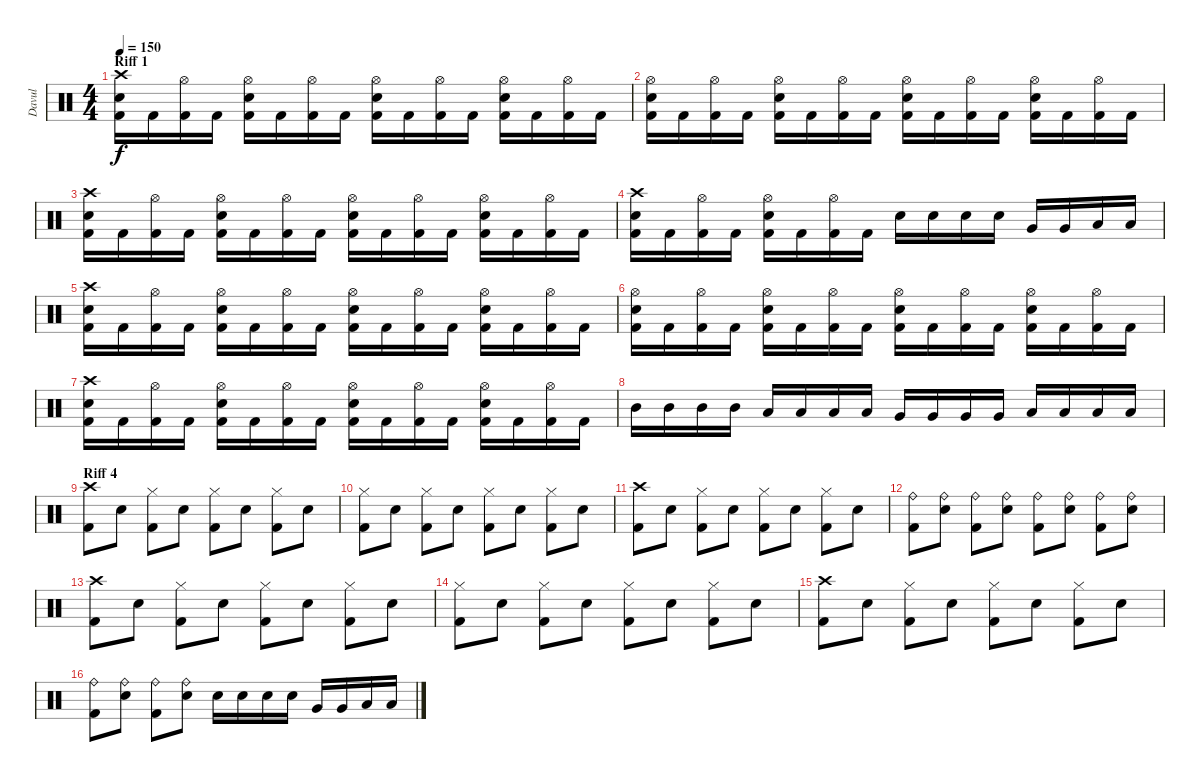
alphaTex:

\track ("Davul" "Davul") {instrument percussion}
\staff {score}
\articulation defaults
\ts (4 4)
\section ("" "Riff 1")
\tempo 150
\clef neutral
\ks c
("Crash high (hit)" "Electric Snare (hit)" "Kick (hit) 2").16{dy f} "Kick (hit) 2".16 ("Hi-Hat (open)" "Kick (hit) 2").16 "Kick (hit) 2".16 ("Hi-Hat (open)" "Electric Snare (hit)" "Kick (hit) 2").16 "Kick (hit) 2".16 ("Hi-Hat (open)" "Kick (hit) 2").16 "Kick (hit) 2".16 ("Hi-Hat (open)" "Electric Snare (hit)" "Kick (hit) 2").16 "Kick (hit) 2".16 ("Hi-Hat (open)" "Kick (hit) 2").16 "Kick (hit) 2".16 ("Hi-Hat (open)" "Electric Snare (hit)" "Kick (hit) 2").16 "Kick (hit) 2".16 ("Hi-Hat (open)" "Kick (hit) 2").16 "Kick (hit) 2".16 |
("Hi-Hat (open)" "Electric Snare (hit)" "Kick (hit) 2").16 "Kick (hit) 2".16 ("Hi-Hat (open)" "Kick (hit) 2").16 "Kick (hit) 2".16 ("Hi-Hat (open)" "Electric Snare (hit)" "Kick (hit) 2").16 "Kick (hit) 2".16 ("Hi-Hat (open)" "Kick (hit) 2").16 "Kick (hit) 2".16 ("Hi-Hat (open)" "Electric Snare (hit)" "Kick (hit) 2").16 "Kick (hit) 2".16 ("Hi-Hat (open)" "Kick (hit) 2").16 "Kick (hit) 2".16 ("Hi-Hat (open)" "Electric Snare (hit)" "Kick (hit) 2").16 "Kick (hit) 2".16 ("Hi-Hat (open)" "Kick (hit) 2").16 "Kick (hit) 2".16 |
("Crash high (hit)" "Electric Snare (hit)" "Kick (hit) 2").16 "Kick (hit) 2".16 ("Hi-Hat (open)" "Kick (hit) 2").16 "Kick (hit) 2".16 ("Hi-Hat (open)" "Electric Snare (hit)" "Kick (hit) 2").16 "Kick (hit) 2".16 ("Hi-Hat (open)" "Kick (hit) 2").16 "Kick (hit) 2".16 ("Hi-Hat (open)" "Electric Snare (hit)" "Kick (hit) 2").16 "Kick (hit) 2".16 ("Hi-Hat (open)" "Kick (hit) 2").16 "Kick (hit) 2".16 ("Hi-Hat (open)" "Electric Snare (hit)" "Kick (hit) 2").16 "Kick (hit) 2".16 ("Hi-Hat (open)" "Kick (hit) 2").16 "Kick (hit) 2".16 |
("Crash high (hit)" "Electric Snare (hit)" "Kick (hit) 2").16 "Kick (hit) 2".16 ("Hi-Hat (open)" "Kick (hit) 2").16 "Kick (hit) 2".16 ("Hi-Hat (open)" "Electric Snare (hit)" "Kick (hit) 2").16 "Kick (hit) 2".16 ("Hi-Hat (open)" "Kick (hit) 2").16 "Kick (hit) 2".16 "Electric Snare (hit)".16 "Electric Snare (hit)".16 "Electric Snare (hit)".16 "Electric Snare (hit)".16 "Very Low Tom (hit)".16 "Very Low Tom (hit)".16 "Low Floor Tom (hit)".16 "Low Floor Tom (hit)".16 |
("Crash high (hit)" "Electric Snare (hit)" "Kick (hit) 2").16 "Kick (hit) 2".16 ("Hi-Hat (open)" "Kick (hit) 2").16 "Kick (hit) 2".16 ("Hi-Hat (open)" "Electric Snare (hit)" "Kick (hit) 2").16 "Kick (hit) 2".16 ("Hi-Hat (open)" "Kick (hit) 2").16 "Kick (hit) 2".16 ("Hi-Hat (open)" "Electric Snare (hit)" "Kick (hit) 2").16 "Kick (hit) 2".16 ("Hi-Hat (open)" "Kick (hit) 2").16 "Kick (hit) 2".16 ("Hi-Hat (open)" "Electric Snare (hit)" "Kick (hit) 2").16 "Kick (hit) 2".16 ("Hi-Hat (open)" "Kick (hit) 2").16 "Kick (hit) 2".16 |
("Hi-Hat (open)" "Electric Snare (hit)" "Kick (hit) 2").16 "Kick (hit) 2".16 ("Hi-Hat (open)" "Kick (hit) 2").16 "Kick (hit) 2".16 ("Hi-Hat (open)" "Electric Snare (hit)" "Kick (hit) 2").16 "Kick (hit) 2".16 ("Hi-Hat (open)" "Kick (hit) 2").16 "Kick (hit) 2".16 ("Hi-Hat (open)" "Electric Snare (hit)" "Kick (hit) 2").16 "Kick (hit) 2".16 ("Hi-Hat (open)" "Kick (hit) 2").16 "Kick (hit) 2".16 ("Hi-Hat (open)" "Electric Snare (hit)" "Kick (hit) 2").16 "Kick (hit) 2".16 ("Hi-Hat (open)" "Kick (hit) 2").16 "Kick (hit) 2".16 |
("Crash high (hit)" "Electric Snare (hit)" "Kick (hit) 2").16 "Kick (hit) 2".16 ("Hi-Hat (open)" "Kick (hit) 2").16 "Kick (hit) 2".16 ("Hi-Hat (open)" "Electric Snare (hit)" "Kick (hit) 2").16 "Kick (hit) 2".16 ("Hi-Hat (open)" "Kick (hit) 2").16 "Kick (hit) 2".16 ("Hi-Hat (open)" "Electric Snare (hit)" "Kick (hit) 2").16 "Kick (hit) 2".16 ("Hi-Hat (open)" "Kick (hit) 2").16 "Kick (hit) 2".16 ("Hi-Hat (open)" "Electric Snare (hit)" "Kick (hit) 2").16 "Kick (hit) 2".16 ("Hi-Hat (open)" "Kick (hit) 2").16 "Kick (hit) 2".16 |
"Mid Tom (hit)".16 "Mid Tom (hit)".16 "Mid Tom (hit)".16 "Mid Tom (hit)".16 "Low Tom (hit)".16 "Low Tom (hit)".16 "Low Tom (hit)".16 "Low Tom (hit)".16 "Very Low Tom (hit)".16 "Very Low Tom (hit)".16 "Very Low Tom (hit)".16 "Very Low Tom (hit)".16 "Low Floor Tom (hit)".16 "Low Floor Tom (hit)".16 "Low Floor Tom (hit)".16 "Low Floor Tom (hit)".16 |
\section ("" "Riff 4")
("Crash high (hit)" "Kick (hit) 2").8 "Electric Snare (hit)".8 ("Hi-Hat (closed)" "Kick (hit) 2").8 "Electric Snare (hit)".8 ("Hi-Hat (closed)" "Kick (hit) 2").8 "Electric Snare (hit)".8 ("Hi-Hat (closed)" "Kick (hit) 2").8 "Electric Snare (hit)".8 |
("Hi-Hat (closed)" "Kick (hit) 2").8 "Electric Snare (hit)".8 ("Hi-Hat (closed)" "Kick (hit) 2").8 "Electric Snare (hit)".8 ("Hi-Hat (closed)" "Kick (hit) 2").8 "Electric Snare (hit)".8 ("Hi-Hat (closed)" "Kick (hit) 2").8 "Electric Snare (hit)".8 |
("Crash high (hit)" "Kick (hit) 2").8 "Electric Snare (hit)".8 ("Hi-Hat (closed)" "Kick (hit) 2").8 "Electric Snare (hit)".8 ("Hi-Hat (closed)" "Kick (hit) 2").8 "Electric Snare (hit)".8 ("Hi-Hat (closed)" "Kick (hit) 2").8 "Electric Snare (hit)".8 |
("Ride (bell)" "Kick (hit) 2").8 ("Ride (bell)" "Electric Snare (hit)").8 ("Ride (bell)" "Kick (hit) 2").8 ("Ride (bell)" "Electric Snare (hit)").8 ("Ride (bell)" "Kick (hit) 2").8 ("Ride (bell)" "Electric Snare (hit)").8 ("Ride (bell)" "Kick (hit) 2").8 ("Ride (bell)" "Electric Snare (hit)").8 |
("Crash high (hit)" "Kick (hit) 2").8 "Electric Snare (hit)".8 ("Hi-Hat (closed)" "Kick (hit) 2").8 "Electric Snare (hit)".8 ("Hi-Hat (closed)" "Kick (hit) 2").8 "Electric Snare (hit)".8 ("Hi-Hat (closed)" "Kick (hit) 2").8 "Electric Snare (hit)".8 |
("Hi-Hat (closed)" "Kick (hit) 2").8 "Electric Snare (hit)".8 ("Hi-Hat (closed)" "Kick (hit) 2").8 "Electric Snare (hit)".8 ("Hi-Hat (closed)" "Kick (hit) 2").8 "Electric Snare (hit)".8 ("Hi-Hat (closed)" "Kick (hit) 2").8 "Electric Snare (hit)".8 |
("Crash high (hit)" "Kick (hit) 2").8 "Electric Snare (hit)".8 ("Hi-Hat (closed)" "Kick (hit) 2").8 "Electric Snare (hit)".8 ("Hi-Hat (closed)" "Kick (hit) 2").8 "Electric Snare (hit)".8 ("Hi-Hat (closed)" "Kick (hit) 2").8 "Electric Snare (hit)".8 |
("Ride (bell)" "Kick (hit) 2").8 ("Ride (bell)" "Electric Snare (hit)").8 ("Ride (bell)" "Kick (hit) 2").8 ("Ride (bell)" "Electric Snare (hit)").8 "Electric Snare (hit)".16 "Electric Snare (hit)".16 "Electric Snare (hit)".16 "Electric Snare (hit)".16 "Very Low Tom (hit)".16 "Very Low Tom (hit)".16 "Low Floor Tom (hit)".16 "Low Floor Tom (hit)".16
